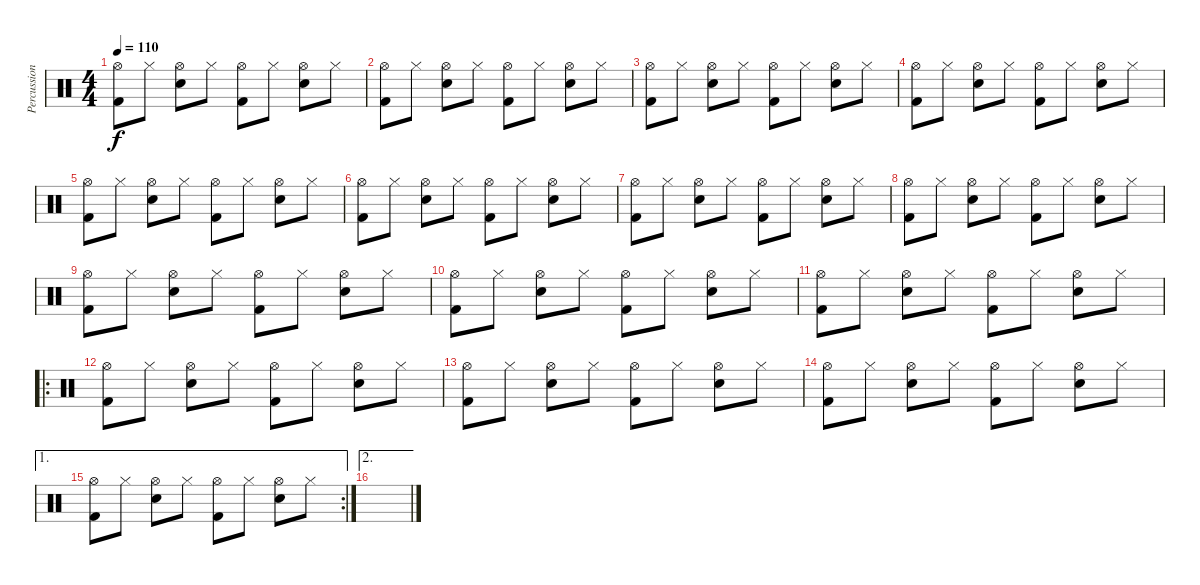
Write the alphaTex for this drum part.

\track ("Percussion" "Percussion") {instrument percussion}
\staff {score}
\articulation defaults
\ts (4 4)
\tempo 110
\clef neutral
\ks c
("Hi-Hat (open)" "Kick (hit) 2").8{dy f} "Hi-Hat (closed)".8 ("Hi-Hat (open)" "Snare (hit) 2").8 "Hi-Hat (closed)".8 ("Hi-Hat (open)" "Kick (hit) 2").8 "Hi-Hat (closed)".8 ("Hi-Hat (open)" "Snare (hit) 2").8 "Hi-Hat (closed)".8 |
("Hi-Hat (open)" "Kick (hit) 2").8 "Hi-Hat (closed)".8 ("Hi-Hat (open)" "Snare (hit) 2").8 "Hi-Hat (closed)".8 ("Hi-Hat (open)" "Kick (hit) 2").8 "Hi-Hat (closed)".8 ("Hi-Hat (open)" "Snare (hit) 2").8 "Hi-Hat (closed)".8 |
("Hi-Hat (open)" "Kick (hit) 2").8 "Hi-Hat (closed)".8 ("Hi-Hat (open)" "Snare (hit) 2").8 "Hi-Hat (closed)".8 ("Hi-Hat (open)" "Kick (hit) 2").8 "Hi-Hat (closed)".8 ("Hi-Hat (open)" "Snare (hit) 2").8 "Hi-Hat (closed)".8 |
("Hi-Hat (open)" "Kick (hit) 2").8 "Hi-Hat (closed)".8 ("Hi-Hat (open)" "Snare (hit) 2").8 "Hi-Hat (closed)".8 ("Hi-Hat (open)" "Kick (hit) 2").8 "Hi-Hat (closed)".8 ("Hi-Hat (open)" "Snare (hit) 2").8 "Hi-Hat (closed)".8 |
("Hi-Hat (open)" "Kick (hit) 2").8 "Hi-Hat (closed)".8 ("Hi-Hat (open)" "Snare (hit) 2").8 "Hi-Hat (closed)".8 ("Hi-Hat (open)" "Kick (hit) 2").8 "Hi-Hat (closed)".8 ("Hi-Hat (open)" "Snare (hit) 2").8 "Hi-Hat (closed)".8 |
("Hi-Hat (open)" "Kick (hit) 2").8 "Hi-Hat (closed)".8 ("Hi-Hat (open)" "Snare (hit) 2").8 "Hi-Hat (closed)".8 ("Hi-Hat (open)" "Kick (hit) 2").8 "Hi-Hat (closed)".8 ("Hi-Hat (open)" "Snare (hit) 2").8 "Hi-Hat (closed)".8 |
("Hi-Hat (open)" "Kick (hit) 2").8 "Hi-Hat (closed)".8 ("Hi-Hat (open)" "Snare (hit) 2").8 "Hi-Hat (closed)".8 ("Hi-Hat (open)" "Kick (hit) 2").8 "Hi-Hat (closed)".8 ("Hi-Hat (open)" "Snare (hit) 2").8 "Hi-Hat (closed)".8 |
("Hi-Hat (open)" "Kick (hit) 2").8 "Hi-Hat (closed)".8 ("Hi-Hat (open)" "Snare (hit) 2").8 "Hi-Hat (closed)".8 ("Hi-Hat (open)" "Kick (hit) 2").8 "Hi-Hat (closed)".8 ("Hi-Hat (open)" "Snare (hit) 2").8 "Hi-Hat (closed)".8 |
("Hi-Hat (open)" "Kick (hit) 2").8 "Hi-Hat (closed)".8 ("Hi-Hat (open)" "Snare (hit) 2").8 "Hi-Hat (closed)".8 ("Hi-Hat (open)" "Kick (hit) 2").8 "Hi-Hat (closed)".8 ("Hi-Hat (open)" "Snare (hit) 2").8 "Hi-Hat (closed)".8 |
("Hi-Hat (open)" "Kick (hit) 2").8 "Hi-Hat (closed)".8 ("Hi-Hat (open)" "Snare (hit) 2").8 "Hi-Hat (closed)".8 ("Hi-Hat (open)" "Kick (hit) 2").8 "Hi-Hat (closed)".8 ("Hi-Hat (open)" "Snare (hit) 2").8 "Hi-Hat (closed)".8 |
("Hi-Hat (open)" "Kick (hit) 2").8 "Hi-Hat (closed)".8 ("Hi-Hat (open)" "Snare (hit) 2").8 "Hi-Hat (closed)".8 ("Hi-Hat (open)" "Kick (hit) 2").8 "Hi-Hat (closed)".8 ("Hi-Hat (open)" "Snare (hit) 2").8 "Hi-Hat (closed)".8 |
\ro
("Hi-Hat (open)" "Kick (hit) 2").8 "Hi-Hat (closed)".8 ("Hi-Hat (open)" "Snare (hit) 2").8 "Hi-Hat (closed)".8 ("Hi-Hat (open)" "Kick (hit) 2").8 "Hi-Hat (closed)".8 ("Hi-Hat (open)" "Snare (hit) 2").8 "Hi-Hat (closed)".8 |
("Hi-Hat (open)" "Kick (hit) 2").8 "Hi-Hat (closed)".8 ("Hi-Hat (open)" "Snare (hit) 2").8 "Hi-Hat (closed)".8 ("Hi-Hat (open)" "Kick (hit) 2").8 "Hi-Hat (closed)".8 ("Hi-Hat (open)" "Snare (hit) 2").8 "Hi-Hat (closed)".8 |
("Hi-Hat (open)" "Kick (hit) 2").8 "Hi-Hat (closed)".8 ("Hi-Hat (open)" "Snare (hit) 2").8 "Hi-Hat (closed)".8 ("Hi-Hat (open)" "Kick (hit) 2").8 "Hi-Hat (closed)".8 ("Hi-Hat (open)" "Snare (hit) 2").8 "Hi-Hat (closed)".8 |
\ae 1
\rc 2
("Hi-Hat (open)" "Kick (hit) 2").8 "Hi-Hat (closed)".8 ("Hi-Hat (open)" "Snare (hit) 2").8 "Hi-Hat (closed)".8 ("Hi-Hat (open)" "Kick (hit) 2").8 "Hi-Hat (closed)".8 ("Hi-Hat (open)" "Snare (hit) 2").8 "Hi-Hat (closed)".8 |
\ae 2
